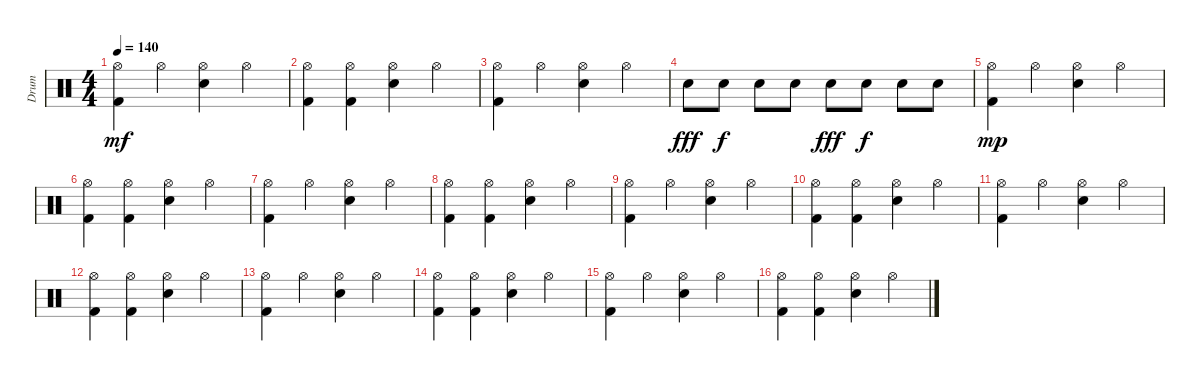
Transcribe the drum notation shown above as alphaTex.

\track ("Drum" "Drum") {instrument percussion}
\staff {score}
\articulation defaults
\ts (4 4)
\tempo 140
\clef neutral
\ks c
("Hi-Hat (open)" "Kick (hit) 2").4{dy mf} "Hi-Hat (open)".4 ("Hi-Hat (open)" "Electric Snare (hit)").4 "Hi-Hat (open)".4 |
("Hi-Hat (open)" "Kick (hit) 2").4 ("Hi-Hat (open)" "Kick (hit) 2").4 ("Hi-Hat (open)" "Electric Snare (hit)").4 "Hi-Hat (open)".4 |
("Hi-Hat (open)" "Kick (hit) 2").4 "Hi-Hat (open)".4 ("Hi-Hat (open)" "Snare (hit) 2").4 "Hi-Hat (open)".4 |
"Electric Snare (hit)".8{dy fff} "Electric Snare (hit)".8{dy f} "Electric Snare (hit)".8 "Electric Snare (hit)".8 "Electric Snare (hit)".8{dy fff} "Electric Snare (hit)".8{dy f} "Electric Snare (hit)".8 "Electric Snare (hit)".8 |
("Hi-Hat (open)" "Kick (hit) 2").4{dy mp} "Hi-Hat (open)".4 ("Hi-Hat (open)" "Electric Snare (hit)").4 "Hi-Hat (open)".4 |
("Hi-Hat (open)" "Kick (hit) 2").4 ("Hi-Hat (open)" "Kick (hit) 2").4 ("Hi-Hat (open)" "Electric Snare (hit)").4 "Hi-Hat (open)".4 |
("Hi-Hat (open)" "Kick (hit) 2").4 "Hi-Hat (open)".4 ("Hi-Hat (open)" "Snare (hit) 2").4 "Hi-Hat (open)".4 |
("Hi-Hat (open)" "Kick (hit) 2").4 ("Hi-Hat (open)" "Kick (hit) 2").4 ("Hi-Hat (open)" "Electric Snare (hit)").4 "Hi-Hat (open)".4 |
("Hi-Hat (open)" "Kick (hit) 2").4 "Hi-Hat (open)".4 ("Hi-Hat (open)" "Electric Snare (hit)").4 "Hi-Hat (open)".4 |
("Hi-Hat (open)" "Kick (hit) 2").4 ("Hi-Hat (open)" "Kick (hit) 2").4 ("Hi-Hat (open)" "Electric Snare (hit)").4 "Hi-Hat (open)".4 |
("Hi-Hat (open)" "Kick (hit) 2").4 "Hi-Hat (open)".4 ("Hi-Hat (open)" "Snare (hit) 2").4 "Hi-Hat (open)".4 |
("Hi-Hat (open)" "Kick (hit) 2").4 ("Hi-Hat (open)" "Kick (hit) 2").4 ("Hi-Hat (open)" "Electric Snare (hit)").4 "Hi-Hat (open)".4 |
("Hi-Hat (open)" "Kick (hit) 2").4 "Hi-Hat (open)".4 ("Hi-Hat (open)" "Electric Snare (hit)").4 "Hi-Hat (open)".4 |
("Hi-Hat (open)" "Kick (hit) 2").4 ("Hi-Hat (open)" "Kick (hit) 2").4 ("Hi-Hat (open)" "Electric Snare (hit)").4 "Hi-Hat (open)".4 |
("Hi-Hat (open)" "Kick (hit) 2").4 "Hi-Hat (open)".4 ("Hi-Hat (open)" "Snare (hit) 2").4 "Hi-Hat (open)".4 |
("Hi-Hat (open)" "Kick (hit) 2").4 ("Hi-Hat (open)" "Kick (hit) 2").4 ("Hi-Hat (open)" "Electric Snare (hit)").4 "Hi-Hat (open)".4
